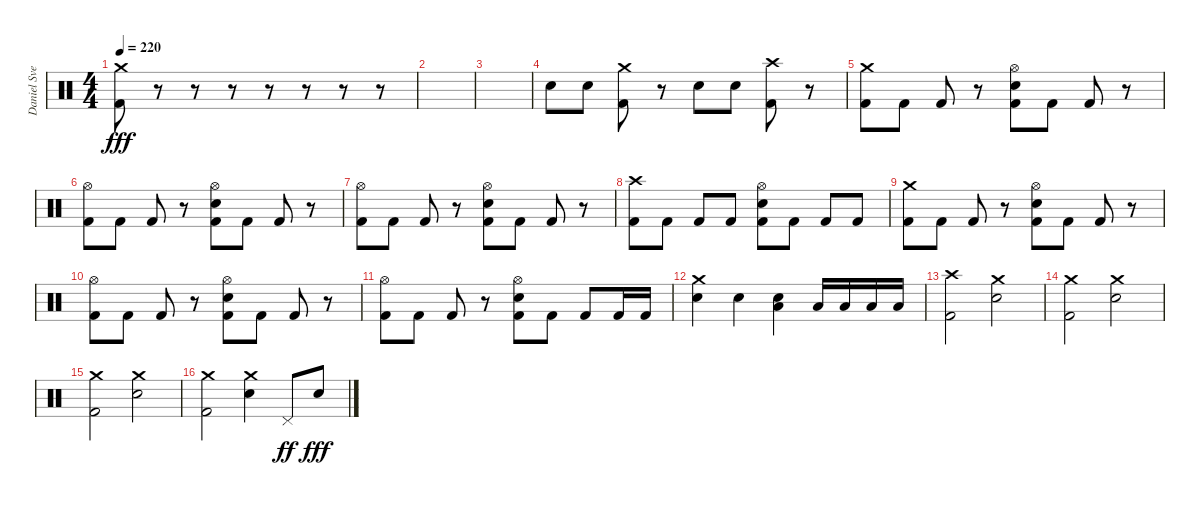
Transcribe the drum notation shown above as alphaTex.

\track ("Daniel Svensson" "Daniel Sve") {instrument percussion}
\staff {score}
\articulation defaults
\ts (4 4)
\tempo 220
\clef neutral
\ks c
("Crash medium (hit)" "Kick (hit) 2").8{dy fff} r.8 r.8 r.8 r.8 r.8 r.8 r.8 |
|
|
"Electric Snare (hit)".8 "Electric Snare (hit)".8 ("Crash medium (hit)" "Kick (hit) 2").8 r.8 "Electric Snare (hit)".8 "Electric Snare (hit)".8 ("Crash high (hit)" "Kick (hit) 2").8 r.8 |
("Crash medium (hit)" "Kick (hit) 2").8 "Kick (hit) 2".8 "Kick (hit) 2".8 r.8 ("Hi-Hat (open)" "Electric Snare (hit)" "Kick (hit) 2").8 "Kick (hit) 2".8 "Kick (hit) 2".8 r.8 |
("Hi-Hat (open)" "Kick (hit) 2").8 "Kick (hit) 2".8 "Kick (hit) 2".8 r.8 ("Hi-Hat (open)" "Electric Snare (hit)" "Kick (hit) 2").8 "Kick (hit) 2".8 "Kick (hit) 2".8 r.8 |
("Hi-Hat (open)" "Kick (hit) 2").8 "Kick (hit) 2".8 "Kick (hit) 2".8 r.8 ("Hi-Hat (open)" "Electric Snare (hit)" "Kick (hit) 2").8 "Kick (hit) 2".8 "Kick (hit) 2".8 r.8 |
("Crash high (hit)" "Kick (hit) 2").8 "Kick (hit) 2".8 "Kick (hit) 2".8 "Kick (hit) 2".8 ("Hi-Hat (open)" "Electric Snare (hit)" "Kick (hit) 2").8 "Kick (hit) 2".8 "Kick (hit) 2".8 "Kick (hit) 2".8 |
("Crash medium (hit)" "Kick (hit) 2").8 "Kick (hit) 2".8 "Kick (hit) 2".8 r.8 ("Hi-Hat (open)" "Electric Snare (hit)" "Kick (hit) 2").8 "Kick (hit) 2".8 "Kick (hit) 2".8 r.8 |
("Hi-Hat (open)" "Kick (hit) 2").8 "Kick (hit) 2".8 "Kick (hit) 2".8 r.8 ("Hi-Hat (open)" "Electric Snare (hit)" "Kick (hit) 2").8 "Kick (hit) 2".8 "Kick (hit) 2".8 r.8 |
("Hi-Hat (open)" "Kick (hit) 2").8 "Kick (hit) 2".8 "Kick (hit) 2".8 r.8 ("Hi-Hat (open)" "Electric Snare (hit)" "Kick (hit) 2").8 "Kick (hit) 2".8 "Kick (hit) 2".8 "Kick (hit) 2".16 "Kick (hit) 2".16 |
("Crash medium (hit)" "Electric Snare (hit)").4 "Electric Snare (hit)".4 ("Electric Snare (hit)" "Low Floor Tom (hit)").4 "Low Floor Tom (hit)".16 "Low Floor Tom (hit)".16 "Low Floor Tom (hit)".16 "Low Floor Tom (hit)".16 |
("Crash high (hit)" "Kick (hit) 2").2 ("Crash medium (hit)" "Electric Snare (hit)").2 |
("Crash medium (hit)" "Kick (hit) 2").2 ("Crash medium (hit)" "Electric Snare (hit)").2 |
("Crash medium (hit)" "Kick (hit) 2").2 ("Crash medium (hit)" "Electric Snare (hit)").2 |
("Crash medium (hit)" "Kick (hit) 2").2 ("Crash medium (hit)" "Electric Snare (hit)").4 "Pedal Hi-Hat (hit)".8{dy ff} "Electric Snare (hit)".8{dy fff}
